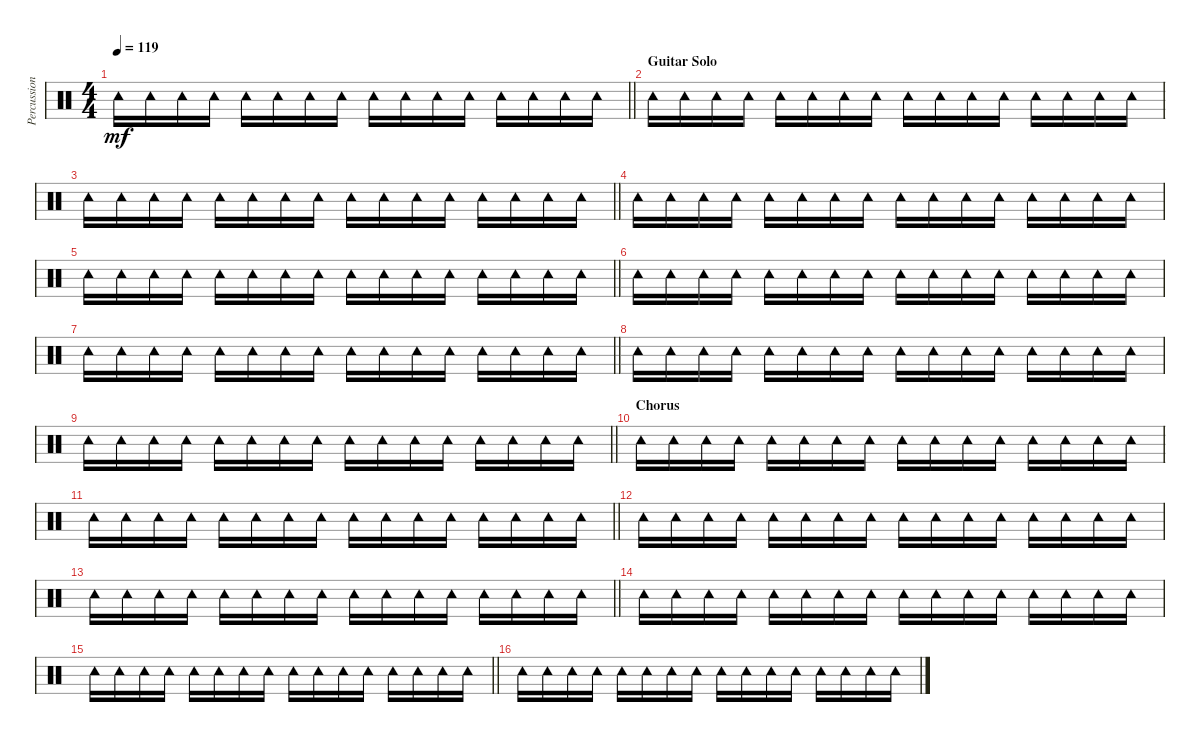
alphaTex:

\track ("Percussions" "Percussion") {instrument percussion}
\staff {score}
\articulation defaults
\ts (4 4)
\tempo 119
\clef neutral
\barLineRight lightlight
\ks c "Tambourine (hit)".16{dy mf} "Tambourine (hit)".16 "Tambourine (hit)".16 "Tambourine (hit)".16 "Tambourine (hit)".16 "Tambourine (hit)".16 "Tambourine (hit)".16 "Tambourine (hit)".16 "Tambourine (hit)".16 "Tambourine (hit)".16 "Tambourine (hit)".16 "Tambourine (hit)".16 "Tambourine (hit)".16 "Tambourine (hit)".16 "Tambourine (hit)".16 "Tambourine (hit)".16
|
\section ("" "Guitar Solo")
"Tambourine (hit)".16 "Tambourine (hit)".16 "Tambourine (hit)".16 "Tambourine (hit)".16 "Tambourine (hit)".16 "Tambourine (hit)".16 "Tambourine (hit)".16 "Tambourine (hit)".16 "Tambourine (hit)".16 "Tambourine (hit)".16 "Tambourine (hit)".16 "Tambourine (hit)".16 "Tambourine (hit)".16 "Tambourine (hit)".16 "Tambourine (hit)".16 "Tambourine (hit)".16 |
\barLineRight lightlight "Tambourine (hit)".16 "Tambourine (hit)".16 "Tambourine (hit)".16 "Tambourine (hit)".16 "Tambourine (hit)".16 "Tambourine (hit)".16 "Tambourine (hit)".16 "Tambourine (hit)".16 "Tambourine (hit)".16 "Tambourine (hit)".16 "Tambourine (hit)".16 "Tambourine (hit)".16 "Tambourine (hit)".16 "Tambourine (hit)".16 "Tambourine (hit)".16 "Tambourine (hit)".16
|
"Tambourine (hit)".16 "Tambourine (hit)".16 "Tambourine (hit)".16 "Tambourine (hit)".16 "Tambourine (hit)".16 "Tambourine (hit)".16 "Tambourine (hit)".16 "Tambourine (hit)".16 "Tambourine (hit)".16 "Tambourine (hit)".16 "Tambourine (hit)".16 "Tambourine (hit)".16 "Tambourine (hit)".16 "Tambourine (hit)".16 "Tambourine (hit)".16 "Tambourine (hit)".16 |
\barLineRight lightlight "Tambourine (hit)".16 "Tambourine (hit)".16 "Tambourine (hit)".16 "Tambourine (hit)".16 "Tambourine (hit)".16 "Tambourine (hit)".16 "Tambourine (hit)".16 "Tambourine (hit)".16 "Tambourine (hit)".16 "Tambourine (hit)".16 "Tambourine (hit)".16 "Tambourine (hit)".16 "Tambourine (hit)".16 "Tambourine (hit)".16 "Tambourine (hit)".16 "Tambourine (hit)".16
|
"Tambourine (hit)".16 "Tambourine (hit)".16 "Tambourine (hit)".16 "Tambourine (hit)".16 "Tambourine (hit)".16 "Tambourine (hit)".16 "Tambourine (hit)".16 "Tambourine (hit)".16 "Tambourine (hit)".16 "Tambourine (hit)".16 "Tambourine (hit)".16 "Tambourine (hit)".16 "Tambourine (hit)".16 "Tambourine (hit)".16 "Tambourine (hit)".16 "Tambourine (hit)".16 |
\barLineRight lightlight "Tambourine (hit)".16 "Tambourine (hit)".16 "Tambourine (hit)".16 "Tambourine (hit)".16 "Tambourine (hit)".16 "Tambourine (hit)".16 "Tambourine (hit)".16 "Tambourine (hit)".16 "Tambourine (hit)".16 "Tambourine (hit)".16 "Tambourine (hit)".16 "Tambourine (hit)".16 "Tambourine (hit)".16 "Tambourine (hit)".16 "Tambourine (hit)".16 "Tambourine (hit)".16
|
"Tambourine (hit)".16 "Tambourine (hit)".16 "Tambourine (hit)".16 "Tambourine (hit)".16 "Tambourine (hit)".16 "Tambourine (hit)".16 "Tambourine (hit)".16 "Tambourine (hit)".16 "Tambourine (hit)".16 "Tambourine (hit)".16 "Tambourine (hit)".16 "Tambourine (hit)".16 "Tambourine (hit)".16 "Tambourine (hit)".16 "Tambourine (hit)".16 "Tambourine (hit)".16 |
\barLineRight lightlight "Tambourine (hit)".16 "Tambourine (hit)".16 "Tambourine (hit)".16 "Tambourine (hit)".16 "Tambourine (hit)".16 "Tambourine (hit)".16 "Tambourine (hit)".16 "Tambourine (hit)".16 "Tambourine (hit)".16 "Tambourine (hit)".16 "Tambourine (hit)".16 "Tambourine (hit)".16 "Tambourine (hit)".16 "Tambourine (hit)".16 "Tambourine (hit)".16 "Tambourine (hit)".16
|
\section ("" "Chorus")
"Tambourine (hit)".16 "Tambourine (hit)".16 "Tambourine (hit)".16 "Tambourine (hit)".16 "Tambourine (hit)".16 "Tambourine (hit)".16 "Tambourine (hit)".16 "Tambourine (hit)".16 "Tambourine (hit)".16 "Tambourine (hit)".16 "Tambourine (hit)".16 "Tambourine (hit)".16 "Tambourine (hit)".16 "Tambourine (hit)".16 "Tambourine (hit)".16 "Tambourine (hit)".16 |
\barLineRight lightlight "Tambourine (hit)".16 "Tambourine (hit)".16 "Tambourine (hit)".16 "Tambourine (hit)".16 "Tambourine (hit)".16 "Tambourine (hit)".16 "Tambourine (hit)".16 "Tambourine (hit)".16 "Tambourine (hit)".16 "Tambourine (hit)".16 "Tambourine (hit)".16 "Tambourine (hit)".16 "Tambourine (hit)".16 "Tambourine (hit)".16 "Tambourine (hit)".16 "Tambourine (hit)".16
|
"Tambourine (hit)".16 "Tambourine (hit)".16 "Tambourine (hit)".16 "Tambourine (hit)".16 "Tambourine (hit)".16 "Tambourine (hit)".16 "Tambourine (hit)".16 "Tambourine (hit)".16 "Tambourine (hit)".16 "Tambourine (hit)".16 "Tambourine (hit)".16 "Tambourine (hit)".16 "Tambourine (hit)".16 "Tambourine (hit)".16 "Tambourine (hit)".16 "Tambourine (hit)".16 |
\barLineRight lightlight "Tambourine (hit)".16 "Tambourine (hit)".16 "Tambourine (hit)".16 "Tambourine (hit)".16 "Tambourine (hit)".16 "Tambourine (hit)".16 "Tambourine (hit)".16 "Tambourine (hit)".16 "Tambourine (hit)".16 "Tambourine (hit)".16 "Tambourine (hit)".16 "Tambourine (hit)".16 "Tambourine (hit)".16 "Tambourine (hit)".16 "Tambourine (hit)".16 "Tambourine (hit)".16
|
"Tambourine (hit)".16 "Tambourine (hit)".16 "Tambourine (hit)".16 "Tambourine (hit)".16 "Tambourine (hit)".16 "Tambourine (hit)".16 "Tambourine (hit)".16 "Tambourine (hit)".16 "Tambourine (hit)".16 "Tambourine (hit)".16 "Tambourine (hit)".16 "Tambourine (hit)".16 "Tambourine (hit)".16 "Tambourine (hit)".16 "Tambourine (hit)".16 "Tambourine (hit)".16 |
\barLineRight lightlight "Tambourine (hit)".16 "Tambourine (hit)".16 "Tambourine (hit)".16 "Tambourine (hit)".16 "Tambourine (hit)".16 "Tambourine (hit)".16 "Tambourine (hit)".16 "Tambourine (hit)".16 "Tambourine (hit)".16 "Tambourine (hit)".16 "Tambourine (hit)".16 "Tambourine (hit)".16 "Tambourine (hit)".16 "Tambourine (hit)".16 "Tambourine (hit)".16 "Tambourine (hit)".16
|
"Tambourine (hit)".16 "Tambourine (hit)".16 "Tambourine (hit)".16 "Tambourine (hit)".16 "Tambourine (hit)".16 "Tambourine (hit)".16 "Tambourine (hit)".16 "Tambourine (hit)".16 "Tambourine (hit)".16 "Tambourine (hit)".16 "Tambourine (hit)".16 "Tambourine (hit)".16 "Tambourine (hit)".16 "Tambourine (hit)".16 "Tambourine (hit)".16 "Tambourine (hit)".16
